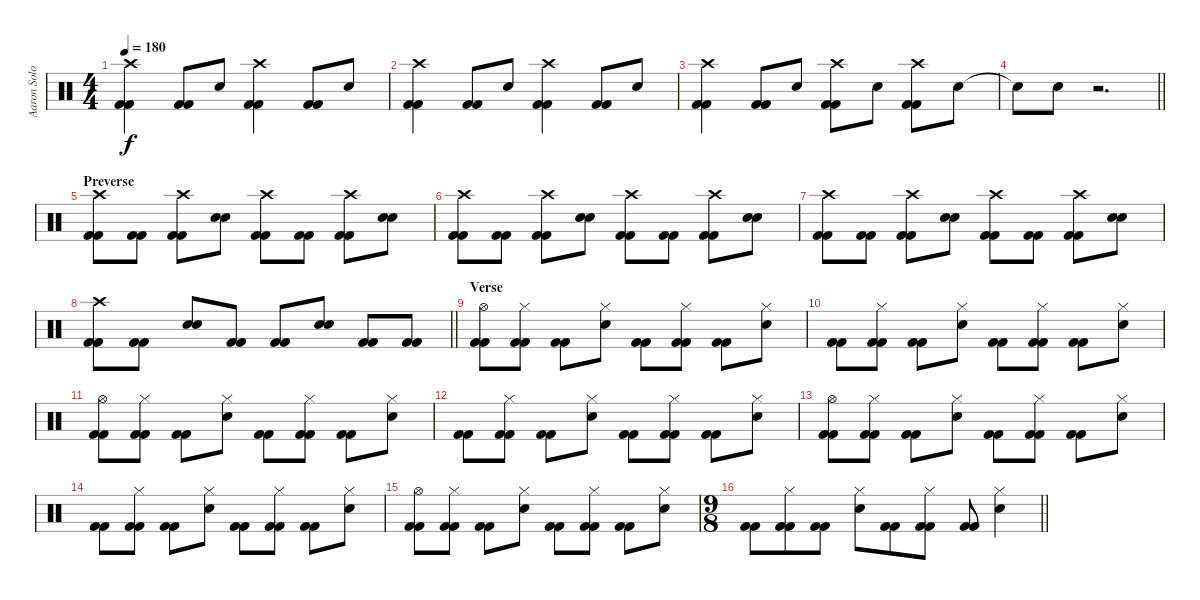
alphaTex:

\track ("Aaron Solowoniuk" "Aaron Solo") {instrument percussion}
\staff {score}
\articulation defaults
\ts (4 4)
\tempo 180
\clef neutral
\ks c
("Crash high (hit)" "Kick (hit) 2" "Kick (hit) 2").4{dy f} ("Kick (hit) 2" "Kick (hit) 2").8 "Electric Snare (hit)".8 ("Crash high (hit)" "Kick (hit) 2" "Kick (hit) 2").4 ("Kick (hit) 2" "Kick (hit) 2").8 "Electric Snare (hit)".8 |
("Crash high (hit)" "Kick (hit) 2" "Kick (hit) 2").4 ("Kick (hit) 2" "Kick (hit) 2").8 "Electric Snare (hit)".8 ("Crash high (hit)" "Kick (hit) 2" "Kick (hit) 2").4 ("Kick (hit) 2" "Kick (hit) 2").8 "Electric Snare (hit)".8 |
("Crash high (hit)" "Kick (hit) 2" "Kick (hit) 2").4 ("Kick (hit) 2" "Kick (hit) 2").8 "Electric Snare (hit)".8 ("Crash high (hit)" "Kick (hit) 2" "Kick (hit) 2").8 "Electric Snare (hit)".8 ("Crash high (hit)" "Kick (hit) 2" "Kick (hit) 2").8 "Electric Snare (hit)".8 |
\barLineRight lightlight "Snare (hit)"{t}.8 "Electric Snare (hit)".8
r.2{d} |
\section ("" "Preverse")
("Crash high (hit)" "Kick (hit) 2" "Kick (hit) 2").8 ("Kick (hit) 2" "Kick (hit) 2").8 ("Crash high (hit)" "Kick (hit) 2" "Kick (hit) 2").8 ("Electric Snare (hit)" "Electric Snare (hit)").8 ("Crash high (hit)" "Kick (hit) 2" "Kick (hit) 2").8 ("Kick (hit) 2" "Kick (hit) 2").8 ("Crash high (hit)" "Kick (hit) 2" "Kick (hit) 2").8 ("Electric Snare (hit)" "Electric Snare (hit)").8 |
("Crash high (hit)" "Kick (hit) 2" "Kick (hit) 2").8 ("Kick (hit) 2" "Kick (hit) 2").8 ("Crash high (hit)" "Kick (hit) 2" "Kick (hit) 2").8 ("Electric Snare (hit)" "Electric Snare (hit)").8 ("Crash high (hit)" "Kick (hit) 2" "Kick (hit) 2").8 ("Kick (hit) 2" "Kick (hit) 2").8 ("Crash high (hit)" "Kick (hit) 2" "Kick (hit) 2").8 ("Electric Snare (hit)" "Electric Snare (hit)").8 |
("Crash high (hit)" "Kick (hit) 2" "Kick (hit) 2").8 ("Kick (hit) 2" "Kick (hit) 2").8 ("Crash high (hit)" "Kick (hit) 2" "Kick (hit) 2").8 ("Electric Snare (hit)" "Electric Snare (hit)").8 ("Crash high (hit)" "Kick (hit) 2" "Kick (hit) 2").8 ("Kick (hit) 2" "Kick (hit) 2").8 ("Crash high (hit)" "Kick (hit) 2" "Kick (hit) 2").8 ("Electric Snare (hit)" "Electric Snare (hit)").8 |
\barLineRight lightlight
("Crash high (hit)" "Kick (hit) 2" "Kick (hit) 2").8 ("Kick (hit) 2" "Kick (hit) 2").8 ("Electric Snare (hit)" "Electric Snare (hit)").8 ("Kick (hit) 2" "Kick (hit) 2").8 ("Kick (hit) 2" "Kick (hit) 2").8 ("Electric Snare (hit)" "Electric Snare (hit)").8 ("Kick (hit) 2" "Kick (hit) 2").8 ("Kick (hit) 2" "Kick (hit) 2").8 |
\section ("" "Verse")
("Hi-Hat (open)" "Kick (hit) 2" "Kick (hit) 2").8 ("Hi-Hat (closed)" "Kick (hit) 2" "Kick (hit) 2").8 ("Kick (hit) 2" "Kick (hit) 2").8 ("Hi-Hat (closed)" "Electric Snare (hit)").8 ("Kick (hit) 2" "Kick (hit) 2").8 ("Hi-Hat (closed)" "Kick (hit) 2" "Kick (hit) 2").8 ("Kick (hit) 2" "Kick (hit) 2").8 ("Hi-Hat (closed)" "Electric Snare (hit)").8 |
("Kick (hit) 2" "Kick (hit) 2").8 ("Hi-Hat (closed)" "Kick (hit) 2" "Kick (hit) 2").8 ("Kick (hit) 2" "Kick (hit) 2").8 ("Hi-Hat (closed)" "Electric Snare (hit)").8 ("Kick (hit) 2" "Kick (hit) 2").8 ("Hi-Hat (closed)" "Kick (hit) 2" "Kick (hit) 2").8 ("Kick (hit) 2" "Kick (hit) 2").8 ("Hi-Hat (closed)" "Electric Snare (hit)").8 |
("Hi-Hat (open)" "Kick (hit) 2" "Kick (hit) 2").8 ("Hi-Hat (closed)" "Kick (hit) 2" "Kick (hit) 2").8 ("Kick (hit) 2" "Kick (hit) 2").8 ("Hi-Hat (closed)" "Electric Snare (hit)").8 ("Kick (hit) 2" "Kick (hit) 2").8 ("Hi-Hat (closed)" "Kick (hit) 2" "Kick (hit) 2").8 ("Kick (hit) 2" "Kick (hit) 2").8 ("Hi-Hat (closed)" "Electric Snare (hit)").8 |
("Kick (hit) 2" "Kick (hit) 2").8 ("Hi-Hat (closed)" "Kick (hit) 2" "Kick (hit) 2").8 ("Kick (hit) 2" "Kick (hit) 2").8 ("Hi-Hat (closed)" "Electric Snare (hit)").8 ("Kick (hit) 2" "Kick (hit) 2").8 ("Hi-Hat (closed)" "Kick (hit) 2" "Kick (hit) 2").8 ("Kick (hit) 2" "Kick (hit) 2").8 ("Hi-Hat (closed)" "Electric Snare (hit)").8 |
("Hi-Hat (open)" "Kick (hit) 2" "Kick (hit) 2").8 ("Hi-Hat (closed)" "Kick (hit) 2" "Kick (hit) 2").8 ("Kick (hit) 2" "Kick (hit) 2").8 ("Hi-Hat (closed)" "Electric Snare (hit)").8 ("Kick (hit) 2" "Kick (hit) 2").8 ("Hi-Hat (closed)" "Kick (hit) 2" "Kick (hit) 2").8 ("Kick (hit) 2" "Kick (hit) 2").8 ("Hi-Hat (closed)" "Electric Snare (hit)").8 |
("Kick (hit) 2" "Kick (hit) 2").8 ("Hi-Hat (closed)" "Kick (hit) 2" "Kick (hit) 2").8 ("Kick (hit) 2" "Kick (hit) 2").8 ("Hi-Hat (closed)" "Electric Snare (hit)").8 ("Kick (hit) 2" "Kick (hit) 2").8 ("Hi-Hat (closed)" "Kick (hit) 2" "Kick (hit) 2").8 ("Kick (hit) 2" "Kick (hit) 2").8 ("Hi-Hat (closed)" "Electric Snare (hit)").8 |
("Hi-Hat (open)" "Kick (hit) 2" "Kick (hit) 2").8 ("Hi-Hat (closed)" "Kick (hit) 2" "Kick (hit) 2").8 ("Kick (hit) 2" "Kick (hit) 2").8 ("Hi-Hat (closed)" "Electric Snare (hit)").8 ("Kick (hit) 2" "Kick (hit) 2").8 ("Hi-Hat (closed)" "Kick (hit) 2" "Kick (hit) 2").8 ("Kick (hit) 2" "Kick (hit) 2").8 ("Hi-Hat (closed)" "Electric Snare (hit)").8 |
\ts (9 8)
\barLineRight lightlight
("Kick (hit) 2" "Kick (hit) 2").8 ("Hi-Hat (closed)" "Kick (hit) 2" "Kick (hit) 2").8 ("Kick (hit) 2" "Kick (hit) 2").8 ("Hi-Hat (closed)" "Electric Snare (hit)").8 ("Kick (hit) 2" "Kick (hit) 2").8 ("Hi-Hat (closed)" "Kick (hit) 2" "Kick (hit) 2").8 ("Kick (hit) 2" "Kick (hit) 2").8 ("Hi-Hat (closed)" "Electric Snare (hit)").4
